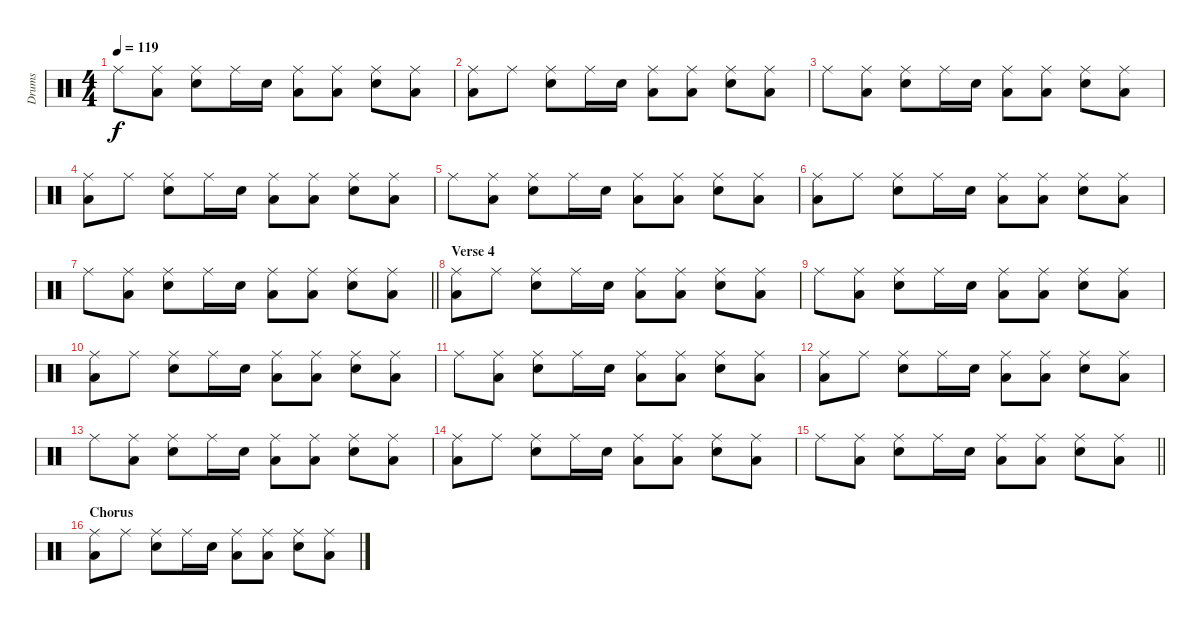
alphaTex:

\track ("Drums" "Drums") {instrument percussion}
\staff {score}
\articulation defaults
\ts (4 4)
\tempo 119
\clef neutral
\ks c "Ride (middle)".8{dy f}
("Ride (middle)" "Low Floor Tom (hit)").8 ("Ride (middle)" "Electric Snare (hit)").8 "Ride (middle)".16 "Electric Snare (hit)".16 ("Ride (middle)" "Low Floor Tom (hit)").8 ("Ride (middle)" "Low Floor Tom (hit)").8 ("Ride (middle)" "Electric Snare (hit)").8 ("Ride (middle)" "Low Floor Tom (hit)").8 |
("Ride (middle)" "Low Floor Tom (hit)").8 "Ride (middle)".8 ("Ride (middle)" "Electric Snare (hit)").8 "Ride (middle)".16 "Electric Snare (hit)".16 ("Ride (middle)" "Low Floor Tom (hit)").8 ("Ride (middle)" "Low Floor Tom (hit)").8 ("Ride (middle)" "Electric Snare (hit)").8 ("Ride (middle)" "Low Floor Tom (hit)").8 |
"Ride (middle)".8 ("Ride (middle)" "Low Floor Tom (hit)").8 ("Ride (middle)" "Electric Snare (hit)").8 "Ride (middle)".16 "Electric Snare (hit)".16 ("Ride (middle)" "Low Floor Tom (hit)").8 ("Ride (middle)" "Low Floor Tom (hit)").8 ("Ride (middle)" "Electric Snare (hit)").8 ("Ride (middle)" "Low Floor Tom (hit)").8 |
("Ride (middle)" "Low Floor Tom (hit)").8 "Ride (middle)".8 ("Ride (middle)" "Electric Snare (hit)").8 "Ride (middle)".16 "Electric Snare (hit)".16 ("Ride (middle)" "Low Floor Tom (hit)").8 ("Ride (middle)" "Low Floor Tom (hit)").8 ("Ride (middle)" "Electric Snare (hit)").8 ("Ride (middle)" "Low Floor Tom (hit)").8 |
"Ride (middle)".8 ("Ride (middle)" "Low Floor Tom (hit)").8 ("Ride (middle)" "Electric Snare (hit)").8 "Ride (middle)".16 "Electric Snare (hit)".16 ("Ride (middle)" "Low Floor Tom (hit)").8 ("Ride (middle)" "Low Floor Tom (hit)").8 ("Ride (middle)" "Electric Snare (hit)").8 ("Ride (middle)" "Low Floor Tom (hit)").8 |
("Ride (middle)" "Low Floor Tom (hit)").8 "Ride (middle)".8 ("Ride (middle)" "Electric Snare (hit)").8 "Ride (middle)".16 "Electric Snare (hit)".16 ("Ride (middle)" "Low Floor Tom (hit)").8 ("Ride (middle)" "Low Floor Tom (hit)").8 ("Ride (middle)" "Electric Snare (hit)").8 ("Ride (middle)" "Low Floor Tom (hit)").8 |
\barLineRight lightlight "Ride (middle)".8
("Ride (middle)" "Low Floor Tom (hit)").8 ("Ride (middle)" "Electric Snare (hit)").8 "Ride (middle)".16 "Electric Snare (hit)".16 ("Ride (middle)" "Low Floor Tom (hit)").8 ("Ride (middle)" "Low Floor Tom (hit)").8 ("Ride (middle)" "Electric Snare (hit)").8 ("Ride (middle)" "Low Floor Tom (hit)").8 |
\section ("" "Verse 4")
("Ride (middle)" "Low Floor Tom (hit)").8 "Ride (middle)".8 ("Ride (middle)" "Electric Snare (hit)").8 "Ride (middle)".16 "Electric Snare (hit)".16 ("Ride (middle)" "Low Floor Tom (hit)").8 ("Ride (middle)" "Low Floor Tom (hit)").8 ("Ride (middle)" "Electric Snare (hit)").8 ("Ride (middle)" "Low Floor Tom (hit)").8 |
"Ride (middle)".8 ("Ride (middle)" "Low Floor Tom (hit)").8 ("Ride (middle)" "Electric Snare (hit)").8 "Ride (middle)".16 "Electric Snare (hit)".16 ("Ride (middle)" "Low Floor Tom (hit)").8 ("Ride (middle)" "Low Floor Tom (hit)").8 ("Ride (middle)" "Electric Snare (hit)").8 ("Ride (middle)" "Low Floor Tom (hit)").8 |
("Ride (middle)" "Low Floor Tom (hit)").8 "Ride (middle)".8 ("Ride (middle)" "Electric Snare (hit)").8 "Ride (middle)".16 "Electric Snare (hit)".16 ("Ride (middle)" "Low Floor Tom (hit)").8 ("Ride (middle)" "Low Floor Tom (hit)").8 ("Ride (middle)" "Electric Snare (hit)").8 ("Ride (middle)" "Low Floor Tom (hit)").8 |
"Ride (middle)".8 ("Ride (middle)" "Low Floor Tom (hit)").8 ("Ride (middle)" "Electric Snare (hit)").8 "Ride (middle)".16 "Electric Snare (hit)".16 ("Ride (middle)" "Low Floor Tom (hit)").8 ("Ride (middle)" "Low Floor Tom (hit)").8 ("Ride (middle)" "Electric Snare (hit)").8 ("Ride (middle)" "Low Floor Tom (hit)").8 |
("Ride (middle)" "Low Floor Tom (hit)").8 "Ride (middle)".8 ("Ride (middle)" "Electric Snare (hit)").8 "Ride (middle)".16 "Electric Snare (hit)".16 ("Ride (middle)" "Low Floor Tom (hit)").8 ("Ride (middle)" "Low Floor Tom (hit)").8 ("Ride (middle)" "Electric Snare (hit)").8 ("Ride (middle)" "Low Floor Tom (hit)").8 |
"Ride (middle)".8 ("Ride (middle)" "Low Floor Tom (hit)").8 ("Ride (middle)" "Electric Snare (hit)").8 "Ride (middle)".16 "Electric Snare (hit)".16 ("Ride (middle)" "Low Floor Tom (hit)").8 ("Ride (middle)" "Low Floor Tom (hit)").8 ("Ride (middle)" "Electric Snare (hit)").8 ("Ride (middle)" "Low Floor Tom (hit)").8 |
("Ride (middle)" "Low Floor Tom (hit)").8 "Ride (middle)".8 ("Ride (middle)" "Electric Snare (hit)").8 "Ride (middle)".16 "Electric Snare (hit)".16 ("Ride (middle)" "Low Floor Tom (hit)").8 ("Ride (middle)" "Low Floor Tom (hit)").8 ("Ride (middle)" "Electric Snare (hit)").8 ("Ride (middle)" "Low Floor Tom (hit)").8 |
\barLineRight lightlight "Ride (middle)".8
("Ride (middle)" "Low Floor Tom (hit)").8 ("Ride (middle)" "Electric Snare (hit)").8 "Ride (middle)".16 "Electric Snare (hit)".16 ("Ride (middle)" "Low Floor Tom (hit)").8 ("Ride (middle)" "Low Floor Tom (hit)").8 ("Ride (middle)" "Electric Snare (hit)").8 ("Ride (middle)" "Low Floor Tom (hit)").8 |
\section ("" "Chorus")
("Ride (middle)" "Low Floor Tom (hit)").8 "Ride (middle)".8 ("Ride (middle)" "Electric Snare (hit)").8 "Ride (middle)".16 "Electric Snare (hit)".16 ("Ride (middle)" "Low Floor Tom (hit)").8 ("Ride (middle)" "Low Floor Tom (hit)").8 ("Ride (middle)" "Electric Snare (hit)").8 ("Ride (middle)" "Low Floor Tom (hit)").8
